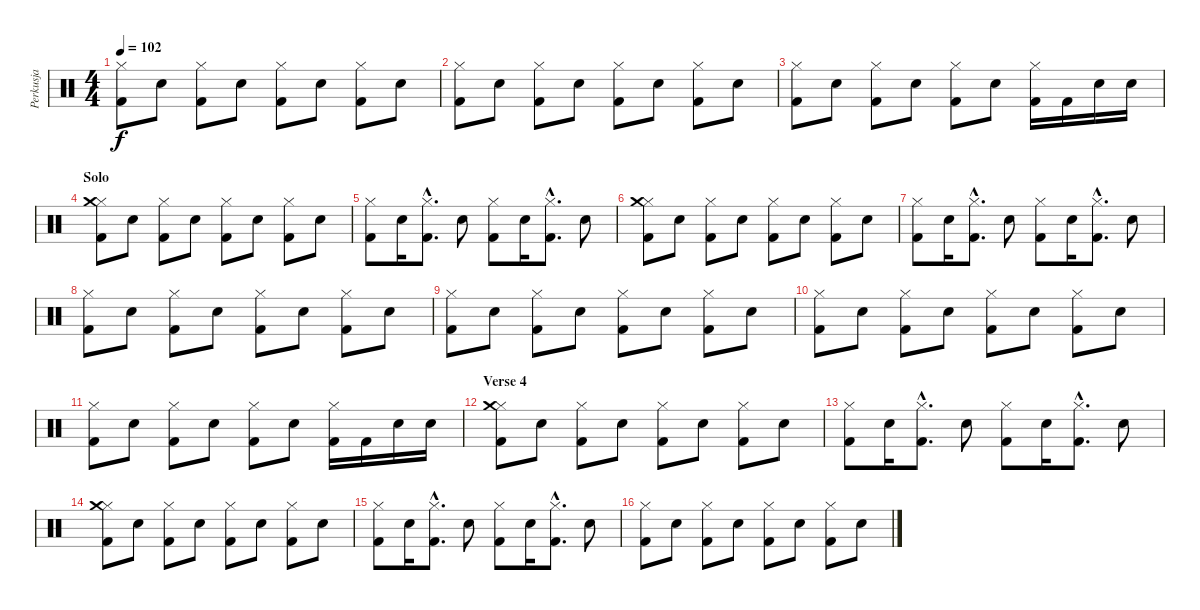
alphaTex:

\track ("Perkusja" "Perkusja") {instrument percussion}
\staff {score}
\articulation defaults
\ts (4 4)
\tempo 102
\clef neutral
\ks c
("Kick (hit) 2" "Hi-Hat (closed)").8{dy f} "Snare (hit) 2".8 ("Kick (hit) 2" "Hi-Hat (closed)").8 "Snare (hit) 2".8 ("Kick (hit) 2" "Hi-Hat (closed)").8 "Snare (hit) 2".8 ("Kick (hit) 2" "Hi-Hat (closed)").8 "Snare (hit) 2".8 |
("Kick (hit) 2" "Hi-Hat (closed)").8 "Snare (hit) 2".8 ("Kick (hit) 2" "Hi-Hat (closed)").8 "Snare (hit) 2".8 ("Kick (hit) 2" "Hi-Hat (closed)").8 "Snare (hit) 2".8 ("Kick (hit) 2" "Hi-Hat (closed)").8 "Snare (hit) 2".8 |
("Kick (hit) 2" "Hi-Hat (closed)").8 "Snare (hit) 2".8 ("Kick (hit) 2" "Hi-Hat (closed)").8 "Snare (hit) 2".8 ("Kick (hit) 2" "Hi-Hat (closed)").8 "Snare (hit) 2".8 ("Kick (hit) 2" "Hi-Hat (closed)").16 "Kick (hit) 2".16 "Snare (hit) 2".16 "Snare (hit) 2".16 |
\section ("" "Solo")
("Kick (hit) 2" "Hi-Hat (closed)" "Crash medium (hit)").8 "Snare (hit) 2".8 ("Kick (hit) 2" "Hi-Hat (closed)").8 "Snare (hit) 2".8 ("Kick (hit) 2" "Hi-Hat (closed)").8 "Snare (hit) 2".8 ("Kick (hit) 2" "Hi-Hat (closed)").8 "Snare (hit) 2".8 |
("Kick (hit) 2" "Hi-Hat (closed)").8 "Snare (hit) 2".16 ("Kick (hit) 2"{hac} "Hi-Hat (closed)"{hac}).8{d} "Snare (hit) 2".8 ("Kick (hit) 2" "Hi-Hat (closed)").8 "Snare (hit) 2".16 ("Kick (hit) 2"{hac} "Hi-Hat (closed)"{hac}).8{d} "Snare (hit) 2".8 |
("Kick (hit) 2" "Hi-Hat (closed)" "Crash medium (hit)").8 "Snare (hit) 2".8 ("Kick (hit) 2" "Hi-Hat (closed)").8 "Snare (hit) 2".8 ("Kick (hit) 2" "Hi-Hat (closed)").8 "Snare (hit) 2".8 ("Kick (hit) 2" "Hi-Hat (closed)").8 "Snare (hit) 2".8 |
("Kick (hit) 2" "Hi-Hat (closed)").8 "Snare (hit) 2".16 ("Kick (hit) 2"{hac} "Hi-Hat (closed)"{hac}).8{d} "Snare (hit) 2".8 ("Kick (hit) 2" "Hi-Hat (closed)").8 "Snare (hit) 2".16 ("Kick (hit) 2"{hac} "Hi-Hat (closed)"{hac}).8{d} "Snare (hit) 2".8 |
("Kick (hit) 2" "Hi-Hat (closed)").8 "Snare (hit) 2".8 ("Kick (hit) 2" "Hi-Hat (closed)").8 "Snare (hit) 2".8 ("Kick (hit) 2" "Hi-Hat (closed)").8 "Snare (hit) 2".8 ("Kick (hit) 2" "Hi-Hat (closed)").8 "Snare (hit) 2".8 |
("Kick (hit) 2" "Hi-Hat (closed)").8 "Snare (hit) 2".8 ("Kick (hit) 2" "Hi-Hat (closed)").8 "Snare (hit) 2".8 ("Kick (hit) 2" "Hi-Hat (closed)").8 "Snare (hit) 2".8 ("Kick (hit) 2" "Hi-Hat (closed)").8 "Snare (hit) 2".8 |
("Kick (hit) 2" "Hi-Hat (closed)").8 "Snare (hit) 2".8 ("Kick (hit) 2" "Hi-Hat (closed)").8 "Snare (hit) 2".8 ("Kick (hit) 2" "Hi-Hat (closed)").8 "Snare (hit) 2".8 ("Kick (hit) 2" "Hi-Hat (closed)").8 "Snare (hit) 2".8 |
("Kick (hit) 2" "Hi-Hat (closed)").8 "Snare (hit) 2".8 ("Kick (hit) 2" "Hi-Hat (closed)").8 "Snare (hit) 2".8 ("Kick (hit) 2" "Hi-Hat (closed)").8 "Snare (hit) 2".8 ("Kick (hit) 2" "Hi-Hat (closed)").16 "Kick (hit) 2".16 "Snare (hit) 2".16 "Snare (hit) 2".16 |
\section ("" "Verse 4")
("Kick (hit) 2" "Hi-Hat (closed)" "Crash medium (hit)").8 "Snare (hit) 2".8 ("Kick (hit) 2" "Hi-Hat (closed)").8 "Snare (hit) 2".8 ("Kick (hit) 2" "Hi-Hat (closed)").8 "Snare (hit) 2".8 ("Kick (hit) 2" "Hi-Hat (closed)").8 "Snare (hit) 2".8 |
("Kick (hit) 2" "Hi-Hat (closed)").8 "Snare (hit) 2".16 ("Kick (hit) 2"{hac} "Hi-Hat (closed)"{hac}).8{d} "Snare (hit) 2".8 ("Kick (hit) 2" "Hi-Hat (closed)").8 "Snare (hit) 2".16 ("Kick (hit) 2"{hac} "Hi-Hat (closed)"{hac}).8{d} "Snare (hit) 2".8 |
("Kick (hit) 2" "Hi-Hat (closed)" "Crash medium (hit)").8 "Snare (hit) 2".8 ("Kick (hit) 2" "Hi-Hat (closed)").8 "Snare (hit) 2".8 ("Kick (hit) 2" "Hi-Hat (closed)").8 "Snare (hit) 2".8 ("Kick (hit) 2" "Hi-Hat (closed)").8 "Snare (hit) 2".8 |
("Kick (hit) 2" "Hi-Hat (closed)").8 "Snare (hit) 2".16 ("Kick (hit) 2"{hac} "Hi-Hat (closed)"{hac}).8{d} "Snare (hit) 2".8 ("Kick (hit) 2" "Hi-Hat (closed)").8 "Snare (hit) 2".16 ("Kick (hit) 2"{hac} "Hi-Hat (closed)"{hac}).8{d} "Snare (hit) 2".8 |
("Kick (hit) 2" "Hi-Hat (closed)").8 "Snare (hit) 2".8 ("Kick (hit) 2" "Hi-Hat (closed)").8 "Snare (hit) 2".8 ("Kick (hit) 2" "Hi-Hat (closed)").8 "Snare (hit) 2".8 ("Kick (hit) 2" "Hi-Hat (closed)").8 "Snare (hit) 2".8
